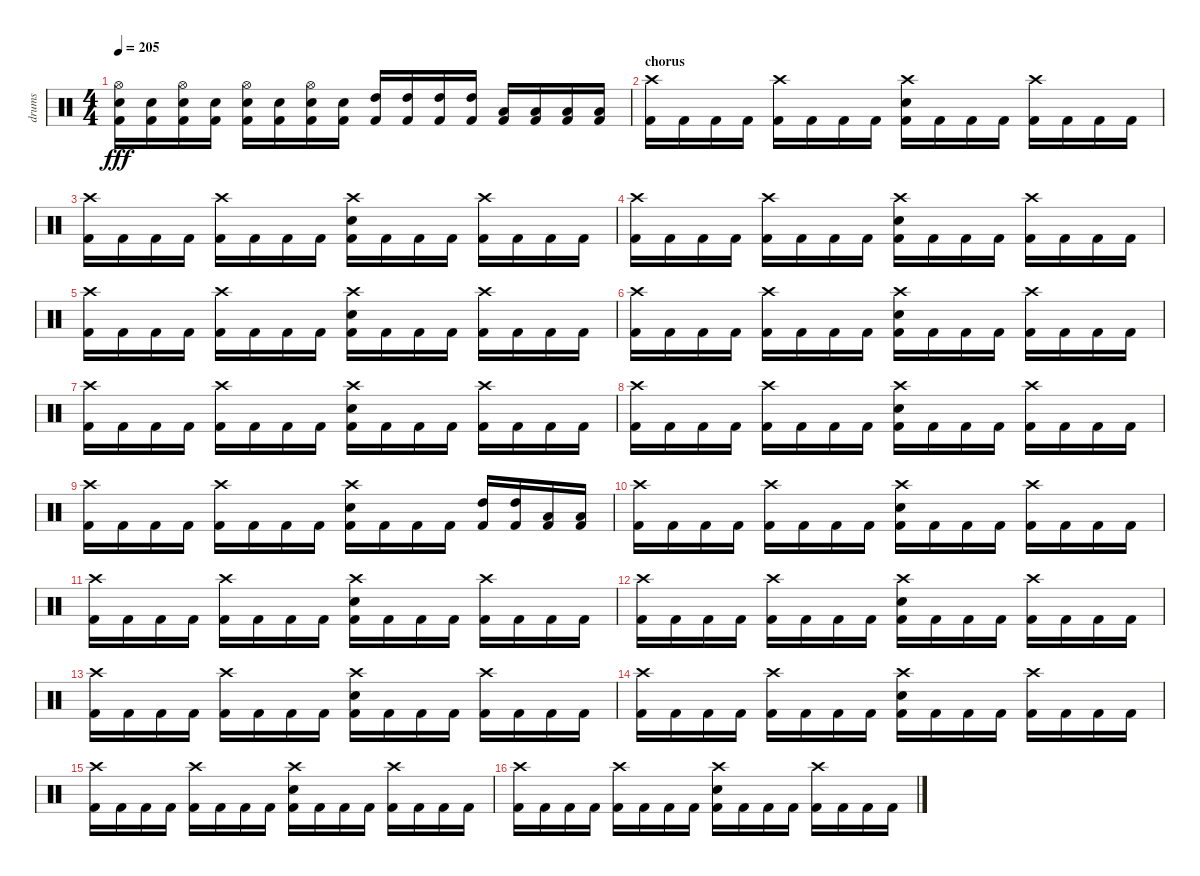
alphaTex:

\track ("drums" "drums") {instrument percussion}
\staff {score}
\articulation defaults
\ts (4 4)
\tempo 205
\clef neutral
\ks c
("Hi-Hat (open)" "Electric Snare (hit)" "Kick (hit) 2").16{dy fff} ("Electric Snare (hit)" "Kick (hit) 2").16 ("Hi-Hat (open)" "Electric Snare (hit)" "Kick (hit) 2").16 ("Electric Snare (hit)" "Kick (hit) 2").16 ("Hi-Hat (open)" "Electric Snare (hit)" "Kick (hit) 2").16 ("Electric Snare (hit)" "Kick (hit) 2").16 ("Hi-Hat (open)" "Electric Snare (hit)" "Kick (hit) 2").16 ("Electric Snare (hit)" "Kick (hit) 2").16 ("High Tom (hit)" "Kick (hit) 2").16 ("High Tom (hit)" "Kick (hit) 2").16 ("High Tom (hit)" "Kick (hit) 2").16 ("High Tom (hit)" "Kick (hit) 2").16 ("Low Tom (hit)" "Kick (hit) 2").16 ("Low Tom (hit)" "Kick (hit) 2").16 ("Low Tom (hit)" "Kick (hit) 2").16 ("Low Tom (hit)" "Kick (hit) 2").16 |
\section ("" "chorus")
("Crash high (hit)" "Kick (hit) 2").16 "Kick (hit) 2".16 "Kick (hit) 2".16 "Kick (hit) 2".16 ("Crash high (hit)" "Kick (hit) 2").16 "Kick (hit) 2".16 "Kick (hit) 2".16 "Kick (hit) 2".16 ("Crash high (hit)" "Electric Snare (hit)" "Kick (hit) 2").16 "Kick (hit) 2".16 "Kick (hit) 2".16 "Kick (hit) 2".16 ("Crash high (hit)" "Kick (hit) 2").16 "Kick (hit) 2".16 "Kick (hit) 2".16 "Kick (hit) 2".16 |
("Crash high (hit)" "Kick (hit) 2").16 "Kick (hit) 2".16 "Kick (hit) 2".16 "Kick (hit) 2".16 ("Crash high (hit)" "Kick (hit) 2").16 "Kick (hit) 2".16 "Kick (hit) 2".16 "Kick (hit) 2".16 ("Crash high (hit)" "Electric Snare (hit)" "Kick (hit) 2").16 "Kick (hit) 2".16 "Kick (hit) 2".16 "Kick (hit) 2".16 ("Crash high (hit)" "Kick (hit) 2").16 "Kick (hit) 2".16 "Kick (hit) 2".16 "Kick (hit) 2".16 |
("Crash high (hit)" "Kick (hit) 2").16 "Kick (hit) 2".16 "Kick (hit) 2".16 "Kick (hit) 2".16 ("Crash high (hit)" "Kick (hit) 2").16 "Kick (hit) 2".16 "Kick (hit) 2".16 "Kick (hit) 2".16 ("Crash high (hit)" "Electric Snare (hit)" "Kick (hit) 2").16 "Kick (hit) 2".16 "Kick (hit) 2".16 "Kick (hit) 2".16 ("Crash high (hit)" "Kick (hit) 2").16 "Kick (hit) 2".16 "Kick (hit) 2".16 "Kick (hit) 2".16 |
("Crash high (hit)" "Kick (hit) 2").16 "Kick (hit) 2".16 "Kick (hit) 2".16 "Kick (hit) 2".16 ("Crash high (hit)" "Kick (hit) 2").16 "Kick (hit) 2".16 "Kick (hit) 2".16 "Kick (hit) 2".16 ("Crash high (hit)" "Electric Snare (hit)" "Kick (hit) 2").16 "Kick (hit) 2".16 "Kick (hit) 2".16 "Kick (hit) 2".16 ("Crash high (hit)" "Kick (hit) 2").16 "Kick (hit) 2".16 "Kick (hit) 2".16 "Kick (hit) 2".16 |
("Crash high (hit)" "Kick (hit) 2").16 "Kick (hit) 2".16 "Kick (hit) 2".16 "Kick (hit) 2".16 ("Crash high (hit)" "Kick (hit) 2").16 "Kick (hit) 2".16 "Kick (hit) 2".16 "Kick (hit) 2".16 ("Crash high (hit)" "Electric Snare (hit)" "Kick (hit) 2").16 "Kick (hit) 2".16 "Kick (hit) 2".16 "Kick (hit) 2".16 ("Crash high (hit)" "Kick (hit) 2").16 "Kick (hit) 2".16 "Kick (hit) 2".16 "Kick (hit) 2".16 |
("Crash high (hit)" "Kick (hit) 2").16 "Kick (hit) 2".16 "Kick (hit) 2".16 "Kick (hit) 2".16 ("Crash high (hit)" "Kick (hit) 2").16 "Kick (hit) 2".16 "Kick (hit) 2".16 "Kick (hit) 2".16 ("Crash high (hit)" "Electric Snare (hit)" "Kick (hit) 2").16 "Kick (hit) 2".16 "Kick (hit) 2".16 "Kick (hit) 2".16 ("Crash high (hit)" "Kick (hit) 2").16 "Kick (hit) 2".16 "Kick (hit) 2".16 "Kick (hit) 2".16 |
("Crash high (hit)" "Kick (hit) 2").16 "Kick (hit) 2".16 "Kick (hit) 2".16 "Kick (hit) 2".16 ("Crash high (hit)" "Kick (hit) 2").16 "Kick (hit) 2".16 "Kick (hit) 2".16 "Kick (hit) 2".16 ("Crash high (hit)" "Electric Snare (hit)" "Kick (hit) 2").16 "Kick (hit) 2".16 "Kick (hit) 2".16 "Kick (hit) 2".16 ("Crash high (hit)" "Kick (hit) 2").16 "Kick (hit) 2".16 "Kick (hit) 2".16 "Kick (hit) 2".16 |
("Crash high (hit)" "Kick (hit) 2").16 "Kick (hit) 2".16 "Kick (hit) 2".16 "Kick (hit) 2".16 ("Crash high (hit)" "Kick (hit) 2").16 "Kick (hit) 2".16 "Kick (hit) 2".16 "Kick (hit) 2".16 ("Crash high (hit)" "Electric Snare (hit)" "Kick (hit) 2").16 "Kick (hit) 2".16 "Kick (hit) 2".16 "Kick (hit) 2".16 ("High Tom (hit)" "Kick (hit) 2").16 ("High Tom (hit)" "Kick (hit) 2").16 ("Low Tom (hit)" "Kick (hit) 2").16 ("Low Tom (hit)" "Kick (hit) 2").16 |
("Crash high (hit)" "Kick (hit) 2").16 "Kick (hit) 2".16 "Kick (hit) 2".16 "Kick (hit) 2".16 ("Crash high (hit)" "Kick (hit) 2").16 "Kick (hit) 2".16 "Kick (hit) 2".16 "Kick (hit) 2".16 ("Crash high (hit)" "Electric Snare (hit)" "Kick (hit) 2").16 "Kick (hit) 2".16 "Kick (hit) 2".16 "Kick (hit) 2".16 ("Crash high (hit)" "Kick (hit) 2").16 "Kick (hit) 2".16 "Kick (hit) 2".16 "Kick (hit) 2".16 |
("Crash high (hit)" "Kick (hit) 2").16 "Kick (hit) 2".16 "Kick (hit) 2".16 "Kick (hit) 2".16 ("Crash high (hit)" "Kick (hit) 2").16 "Kick (hit) 2".16 "Kick (hit) 2".16 "Kick (hit) 2".16 ("Crash high (hit)" "Electric Snare (hit)" "Kick (hit) 2").16 "Kick (hit) 2".16 "Kick (hit) 2".16 "Kick (hit) 2".16 ("Crash high (hit)" "Kick (hit) 2").16 "Kick (hit) 2".16 "Kick (hit) 2".16 "Kick (hit) 2".16 |
("Crash high (hit)" "Kick (hit) 2").16 "Kick (hit) 2".16 "Kick (hit) 2".16 "Kick (hit) 2".16 ("Crash high (hit)" "Kick (hit) 2").16 "Kick (hit) 2".16 "Kick (hit) 2".16 "Kick (hit) 2".16 ("Crash high (hit)" "Electric Snare (hit)" "Kick (hit) 2").16 "Kick (hit) 2".16 "Kick (hit) 2".16 "Kick (hit) 2".16 ("Crash high (hit)" "Kick (hit) 2").16 "Kick (hit) 2".16 "Kick (hit) 2".16 "Kick (hit) 2".16 |
("Crash high (hit)" "Kick (hit) 2").16 "Kick (hit) 2".16 "Kick (hit) 2".16 "Kick (hit) 2".16 ("Crash high (hit)" "Kick (hit) 2").16 "Kick (hit) 2".16 "Kick (hit) 2".16 "Kick (hit) 2".16 ("Crash high (hit)" "Electric Snare (hit)" "Kick (hit) 2").16 "Kick (hit) 2".16 "Kick (hit) 2".16 "Kick (hit) 2".16 ("Crash high (hit)" "Kick (hit) 2").16 "Kick (hit) 2".16 "Kick (hit) 2".16 "Kick (hit) 2".16 |
("Crash high (hit)" "Kick (hit) 2").16 "Kick (hit) 2".16 "Kick (hit) 2".16 "Kick (hit) 2".16 ("Crash high (hit)" "Kick (hit) 2").16 "Kick (hit) 2".16 "Kick (hit) 2".16 "Kick (hit) 2".16 ("Crash high (hit)" "Electric Snare (hit)" "Kick (hit) 2").16 "Kick (hit) 2".16 "Kick (hit) 2".16 "Kick (hit) 2".16 ("Crash high (hit)" "Kick (hit) 2").16 "Kick (hit) 2".16 "Kick (hit) 2".16 "Kick (hit) 2".16 |
("Crash high (hit)" "Kick (hit) 2").16 "Kick (hit) 2".16 "Kick (hit) 2".16 "Kick (hit) 2".16 ("Crash high (hit)" "Kick (hit) 2").16 "Kick (hit) 2".16 "Kick (hit) 2".16 "Kick (hit) 2".16 ("Crash high (hit)" "Electric Snare (hit)" "Kick (hit) 2").16 "Kick (hit) 2".16 "Kick (hit) 2".16 "Kick (hit) 2".16 ("Crash high (hit)" "Kick (hit) 2").16 "Kick (hit) 2".16 "Kick (hit) 2".16 "Kick (hit) 2".16 |
("Crash high (hit)" "Kick (hit) 2").16 "Kick (hit) 2".16 "Kick (hit) 2".16 "Kick (hit) 2".16 ("Crash high (hit)" "Kick (hit) 2").16 "Kick (hit) 2".16 "Kick (hit) 2".16 "Kick (hit) 2".16 ("Crash high (hit)" "Electric Snare (hit)" "Kick (hit) 2").16 "Kick (hit) 2".16 "Kick (hit) 2".16 "Kick (hit) 2".16 ("Crash high (hit)" "Kick (hit) 2").16 "Kick (hit) 2".16 "Kick (hit) 2".16 "Kick (hit) 2".16
